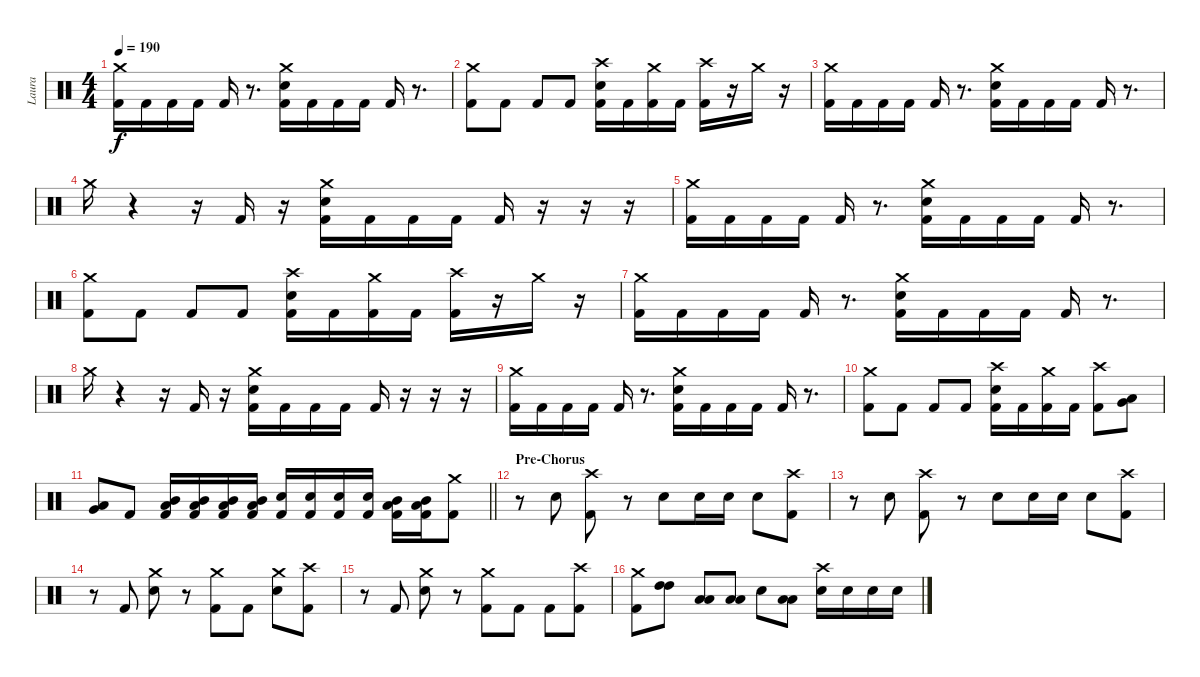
\track ("Laura" "Laura") {instrument percussion}
\staff {score}
\articulation defaults
\ts (4 4)
\tempo 190
\clef neutral
\ks c
("Crash medium (hit)" "Kick (hit) 2").16{dy f} "Kick (hit) 2".16 "Kick (hit) 2".16 "Kick (hit) 2".16 "Kick (hit) 2".16 r.8{d} ("Crash medium (hit)" "Electric Snare (hit)" "Kick (hit) 2").16 "Kick (hit) 2".16 "Kick (hit) 2".16 "Kick (hit) 2".16 "Kick (hit) 2".16 r.8{d} |
("Crash medium (hit)" "Kick (hit) 2").8 "Kick (hit) 2".8 "Kick (hit) 2".8 "Kick (hit) 2".8 ("Crash high (hit)" "Electric Snare (hit)" "Kick (hit) 2").16 "Kick (hit) 2".16 ("Crash medium (hit)" "Kick (hit) 2").16 "Kick (hit) 2".16 ("Crash high (hit)" "Kick (hit) 2").16 r.16 "Crash medium (hit)".16 r.16 |
("Crash medium (hit)" "Kick (hit) 2").16 "Kick (hit) 2".16 "Kick (hit) 2".16 "Kick (hit) 2".16 "Kick (hit) 2".16 r.8{d} ("Crash medium (hit)" "Electric Snare (hit)" "Kick (hit) 2").16 "Kick (hit) 2".16 "Kick (hit) 2".16 "Kick (hit) 2".16 "Kick (hit) 2".16 r.8{d} |
"Crash medium (hit)".16 r.4 r.16 "Kick (hit) 2".16 r.16 ("Crash medium (hit)" "Electric Snare (hit)" "Kick (hit) 2").16 "Kick (hit) 2".16 "Kick (hit) 2".16 "Kick (hit) 2".16 "Kick (hit) 2".16 r.16 r.16 r.16 |
("Crash medium (hit)" "Kick (hit) 2").16 "Kick (hit) 2".16 "Kick (hit) 2".16 "Kick (hit) 2".16 "Kick (hit) 2".16 r.8{d} ("Crash medium (hit)" "Electric Snare (hit)" "Kick (hit) 2").16 "Kick (hit) 2".16 "Kick (hit) 2".16 "Kick (hit) 2".16 "Kick (hit) 2".16 r.8{d} |
("Crash medium (hit)" "Kick (hit) 2").8 "Kick (hit) 2".8 "Kick (hit) 2".8 "Kick (hit) 2".8 ("Crash high (hit)" "Electric Snare (hit)" "Kick (hit) 2").16 "Kick (hit) 2".16 ("Crash medium (hit)" "Kick (hit) 2").16 "Kick (hit) 2".16 ("Crash high (hit)" "Kick (hit) 2").16 r.16 "Crash medium (hit)".16 r.16 |
("Crash medium (hit)" "Kick (hit) 2").16 "Kick (hit) 2".16 "Kick (hit) 2".16 "Kick (hit) 2".16 "Kick (hit) 2".16 r.8{d} ("Crash medium (hit)" "Electric Snare (hit)" "Kick (hit) 2").16 "Kick (hit) 2".16 "Kick (hit) 2".16 "Kick (hit) 2".16 "Kick (hit) 2".16 r.8{d} |
"Crash medium (hit)".16 r.4 r.16 "Kick (hit) 2".16 r.16 ("Crash medium (hit)" "Electric Snare (hit)" "Kick (hit) 2").16 "Kick (hit) 2".16 "Kick (hit) 2".16 "Kick (hit) 2".16 "Kick (hit) 2".16 r.16 r.16 r.16 |
("Crash medium (hit)" "Kick (hit) 2").16 "Kick (hit) 2".16 "Kick (hit) 2".16 "Kick (hit) 2".16 "Kick (hit) 2".16 r.8{d} ("Crash medium (hit)" "Electric Snare (hit)" "Kick (hit) 2").16 "Kick (hit) 2".16 "Kick (hit) 2".16 "Kick (hit) 2".16 "Kick (hit) 2".16 r.8{d} |
("Crash medium (hit)" "Kick (hit) 2").8 "Kick (hit) 2".8 "Kick (hit) 2".8 "Kick (hit) 2".8 ("Crash high (hit)" "Electric Snare (hit)" "Kick (hit) 2").16 "Kick (hit) 2".16 ("Crash medium (hit)" "Kick (hit) 2").16 "Kick (hit) 2".16 ("Crash high (hit)" "Kick (hit) 2").8 ("Very Low Tom (hit)" "Low Floor Tom (hit)").8 |
\barLineRight lightlight
("Low Tom (hit)" "Very Low Tom (hit)").8 "Kick (hit) 2".8 ("Mid Tom (hit)" "Low Tom (hit)" "Kick (hit) 2").16 ("Mid Tom (hit)" "Low Tom (hit)" "Kick (hit) 2").16 ("Mid Tom (hit)" "Low Tom (hit)" "Kick (hit) 2").16 ("Mid Tom (hit)" "Low Tom (hit)" "Kick (hit) 2").16 ("Electric Snare (hit)" "Kick (hit) 2").16 ("Electric Snare (hit)" "Kick (hit) 2").16 ("Electric Snare (hit)" "Kick (hit) 2").16 ("Electric Snare (hit)" "Kick (hit) 2").16 ("Mid Tom (hit)" "Low Tom (hit)" "Kick (hit) 2").16 ("Mid Tom (hit)" "Low Tom (hit)" "Kick (hit) 2").16 ("Crash medium (hit)" "Kick (hit) 2").8 |
\section ("" "Pre-Chorus")
r.8 "Electric Snare (hit)".8 ("Crash high (hit)" "Kick (hit) 2").8 r.8 "Electric Snare (hit)".8 "Electric Snare (hit)".16 "Electric Snare (hit)".16 "Electric Snare (hit)".8 ("Crash high (hit)" "Kick (hit) 2").8 |
r.8 "Electric Snare (hit)".8 ("Crash high (hit)" "Kick (hit) 2").8 r.8 "Electric Snare (hit)".8 "Electric Snare (hit)".16 "Electric Snare (hit)".16 "Electric Snare (hit)".8 ("Crash high (hit)" "Kick (hit) 2").8 |
r.8 "Kick (hit) 2".8 ("Crash medium (hit)" "Electric Snare (hit)").8 r.8 ("Crash medium (hit)" "Kick (hit) 2").8 "Kick (hit) 2".8 ("Crash medium (hit)" "Electric Snare (hit)").8 ("Crash high (hit)" "Kick (hit) 2").8 |
r.8 "Kick (hit) 2".8 ("Crash medium (hit)" "Electric Snare (hit)").8 r.8 ("Crash medium (hit)" "Kick (hit) 2").8 "Kick (hit) 2".8 "Kick (hit) 2".8 ("Crash high (hit)" "Kick (hit) 2").8 |
("Crash medium (hit)" "Kick (hit) 2").8 ("High Tom (hit)" "High Tom (hit)").8 ("Low Floor Tom (hit)" "Low Floor Tom (hit)").8 ("Low Tom (hit)" "Low Tom (hit)").8 "Electric Snare (hit)".8 ("Low Tom (hit)" "Low Tom (hit)").8 ("Crash high (hit)" "Electric Snare (hit)").16 "Electric Snare (hit)".16 "Electric Snare (hit)".16 "Electric Snare (hit)".16
